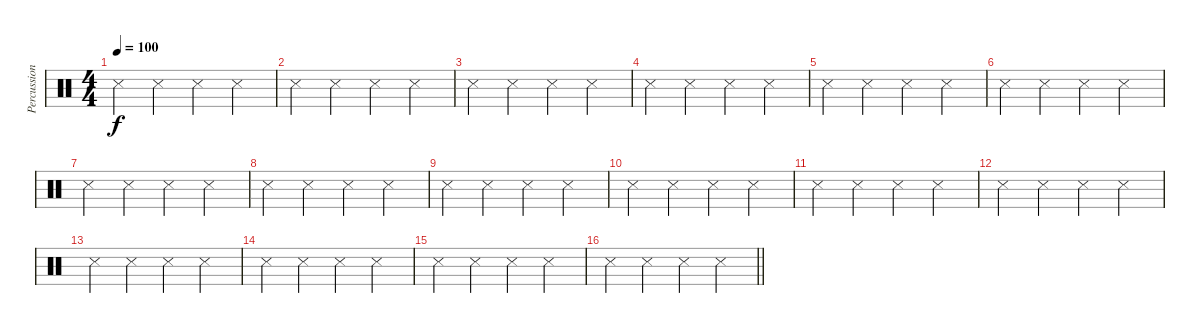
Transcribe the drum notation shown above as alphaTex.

\track ("Percussion" "Percussion") {mute instrument percussion}
\staff {score}
\articulation defaults
\ts (4 4)
\tempo 100
\clef neutral
\ks c "Metronome (hit)".4{dy f} "Snare (side stick) 3".4 "Snare (side stick) 3".4 "Snare (side stick) 3".4
|
"Metronome (hit)".4 "Snare (side stick) 3".4 "Snare (side stick) 3".4 "Snare (side stick) 3".4 |
"Metronome (hit)".4 "Snare (side stick) 3".4 "Snare (side stick) 3".4 "Snare (side stick) 3".4 |
"Metronome (hit)".4 "Snare (side stick) 3".4 "Snare (side stick) 3".4 "Snare (side stick) 3".4 |
"Metronome (hit)".4 "Snare (side stick) 3".4 "Snare (side stick) 3".4 "Snare (side stick) 3".4 |
"Metronome (hit)".4 "Snare (side stick) 3".4 "Snare (side stick) 3".4 "Snare (side stick) 3".4 |
"Metronome (hit)".4 "Snare (side stick) 3".4 "Snare (side stick) 3".4 "Snare (side stick) 3".4 |
"Metronome (hit)".4 "Snare (side stick) 3".4 "Snare (side stick) 3".4 "Snare (side stick) 3".4 |
"Metronome (hit)".4 "Snare (side stick) 3".4 "Snare (side stick) 3".4 "Snare (side stick) 3".4 |
"Metronome (hit)".4 "Snare (side stick) 3".4 "Snare (side stick) 3".4 "Snare (side stick) 3".4 |
"Metronome (hit)".4 "Snare (side stick) 3".4 "Snare (side stick) 3".4 "Snare (side stick) 3".4 |
"Metronome (hit)".4 "Snare (side stick) 3".4 "Snare (side stick) 3".4 "Snare (side stick) 3".4 |
"Metronome (hit)".4 "Snare (side stick) 3".4 "Snare (side stick) 3".4 "Snare (side stick) 3".4 |
"Metronome (hit)".4 "Snare (side stick) 3".4 "Snare (side stick) 3".4 "Snare (side stick) 3".4 |
"Metronome (hit)".4 "Snare (side stick) 3".4 "Snare (side stick) 3".4 "Snare (side stick) 3".4 |
\barLineRight lightlight "Metronome (hit)".4 "Snare (side stick) 3".4 "Snare (side stick) 3".4 "Snare (side stick) 3".4
